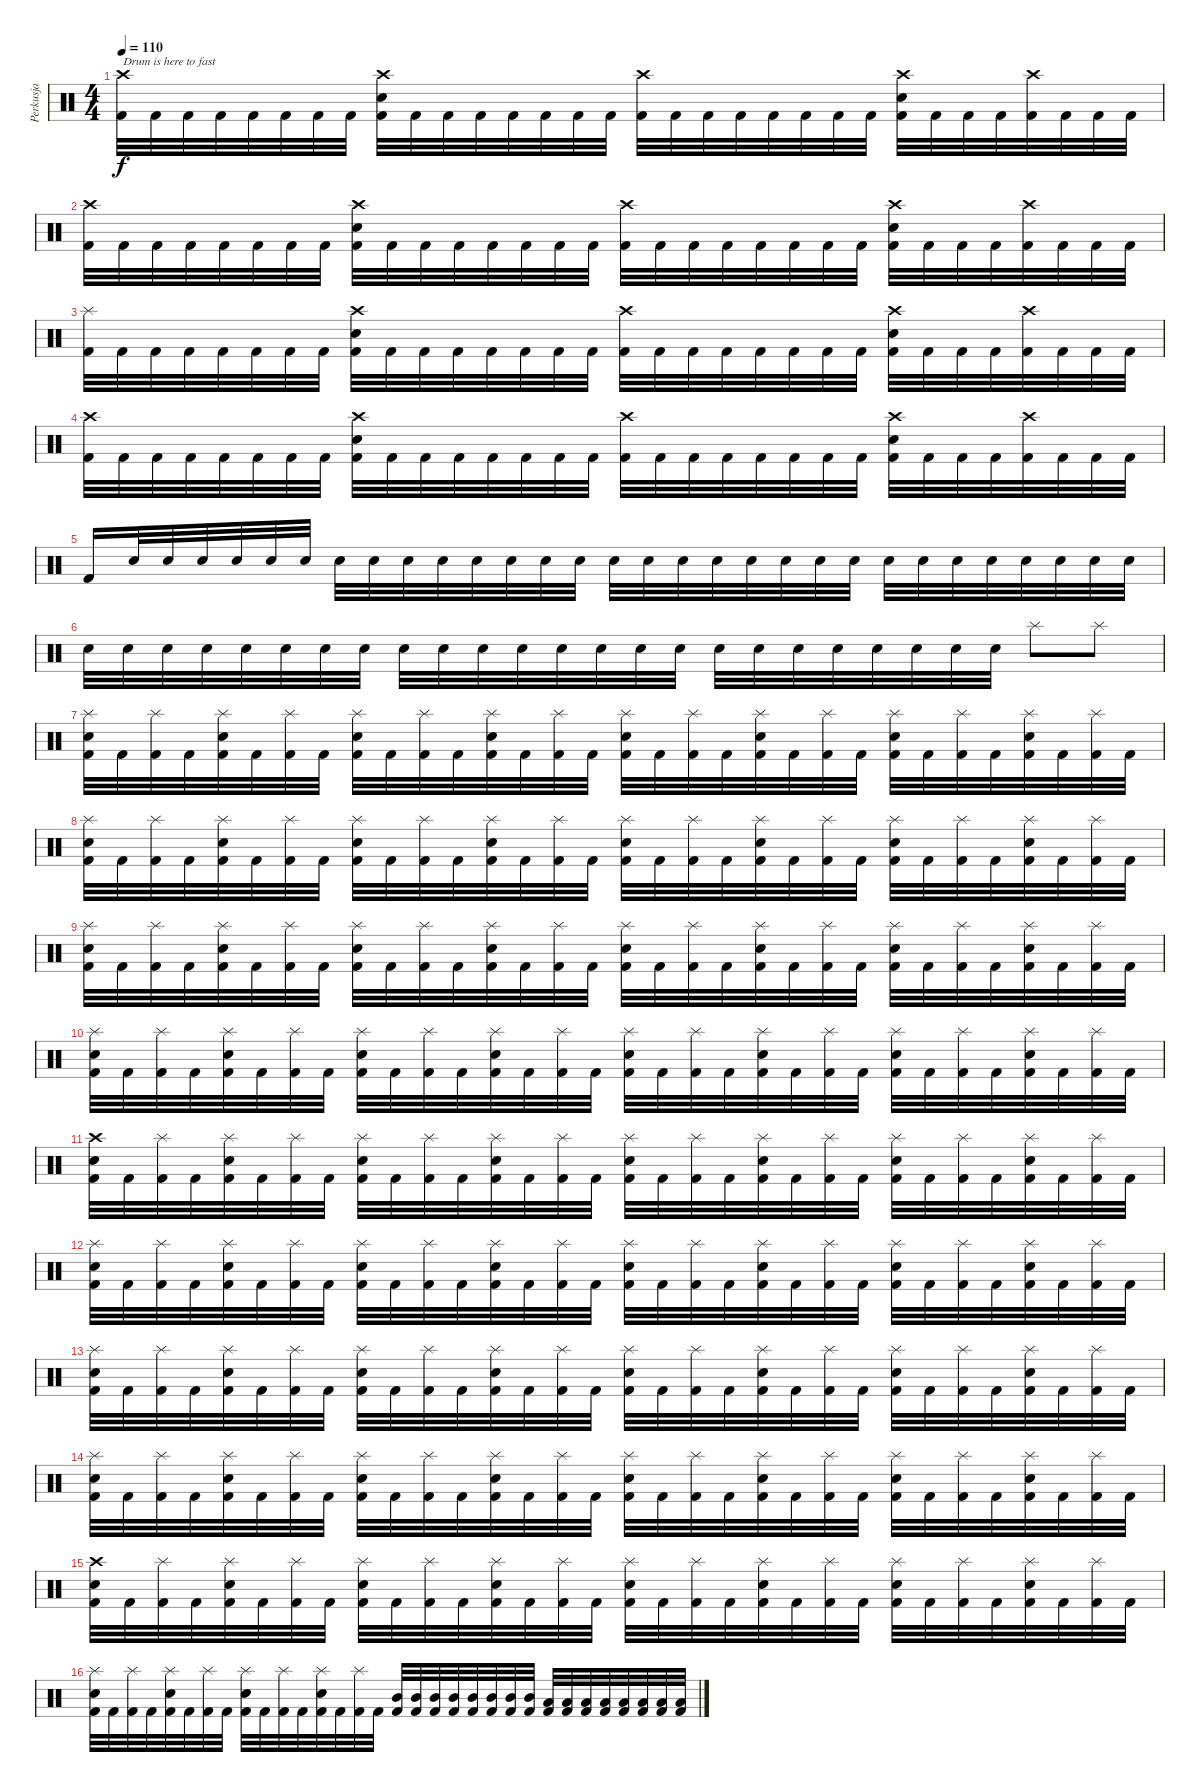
\track ("Perkusja" "Perkusja") {instrument percussion}
\staff {score}
\articulation defaults
\ts (4 4)
\tempo 110
\clef neutral
\ks c
("Crash high (hit)" "Kick (hit) 2").32{txt "Drum is here to fast" dy f} "Kick (hit) 2".32 "Kick (hit) 2".32 "Kick (hit) 2".32 "Kick (hit) 2".32 "Kick (hit) 2".32 "Kick (hit) 2".32 "Kick (hit) 2".32 ("Crash high (hit)" "Snare (hit) 2" "Kick (hit) 2").32 "Kick (hit) 2".32 "Kick (hit) 2".32 "Kick (hit) 2".32 "Kick (hit) 2".32 "Kick (hit) 2".32 "Kick (hit) 2".32 "Kick (hit) 2".32 ("Crash high (hit)" "Kick (hit) 2").32 "Kick (hit) 2".32 "Kick (hit) 2".32 "Kick (hit) 2".32 "Kick (hit) 2".32 "Kick (hit) 2".32 "Kick (hit) 2".32 "Kick (hit) 2".32 ("Crash high (hit)" "Snare (hit) 2" "Kick (hit) 2").32 "Kick (hit) 2".32 "Kick (hit) 2".32 "Kick (hit) 2".32 ("Crash high (hit)" "Kick (hit) 2").32 "Kick (hit) 2".32 "Kick (hit) 2".32 "Kick (hit) 2".32 |
("Crash high (hit)" "Kick (hit) 2").32 "Kick (hit) 2".32 "Kick (hit) 2".32 "Kick (hit) 2".32 "Kick (hit) 2".32 "Kick (hit) 2".32 "Kick (hit) 2".32 "Kick (hit) 2".32 ("Crash high (hit)" "Snare (hit) 2" "Kick (hit) 2").32 "Kick (hit) 2".32 "Kick (hit) 2".32 "Kick (hit) 2".32 "Kick (hit) 2".32 "Kick (hit) 2".32 "Kick (hit) 2".32 "Kick (hit) 2".32 ("Crash high (hit)" "Kick (hit) 2").32 "Kick (hit) 2".32 "Kick (hit) 2".32 "Kick (hit) 2".32 "Kick (hit) 2".32 "Kick (hit) 2".32 "Kick (hit) 2".32 "Kick (hit) 2".32 ("Crash high (hit)" "Snare (hit) 2" "Kick (hit) 2").32 "Kick (hit) 2".32 "Kick (hit) 2".32 "Kick (hit) 2".32 ("Crash high (hit)" "Kick (hit) 2").32 "Kick (hit) 2".32 "Kick (hit) 2".32 "Kick (hit) 2".32 |
("Splash (hit)" "Kick (hit) 2").32 "Kick (hit) 2".32 "Kick (hit) 2".32 "Kick (hit) 2".32 "Kick (hit) 2".32 "Kick (hit) 2".32 "Kick (hit) 2".32 "Kick (hit) 2".32 ("Crash high (hit)" "Snare (hit) 2" "Kick (hit) 2").32 "Kick (hit) 2".32 "Kick (hit) 2".32 "Kick (hit) 2".32 "Kick (hit) 2".32 "Kick (hit) 2".32 "Kick (hit) 2".32 "Kick (hit) 2".32 ("Crash high (hit)" "Kick (hit) 2").32 "Kick (hit) 2".32 "Kick (hit) 2".32 "Kick (hit) 2".32 "Kick (hit) 2".32 "Kick (hit) 2".32 "Kick (hit) 2".32 "Kick (hit) 2".32 ("Crash high (hit)" "Snare (hit) 2" "Kick (hit) 2").32 "Kick (hit) 2".32 "Kick (hit) 2".32 "Kick (hit) 2".32 ("Crash high (hit)" "Kick (hit) 2").32 "Kick (hit) 2".32 "Kick (hit) 2".32 "Kick (hit) 2".32 |
("Crash high (hit)" "Kick (hit) 2").32 "Kick (hit) 2".32 "Kick (hit) 2".32 "Kick (hit) 2".32 "Kick (hit) 2".32 "Kick (hit) 2".32 "Kick (hit) 2".32 "Kick (hit) 2".32 ("Crash high (hit)" "Snare (hit) 2" "Kick (hit) 2").32 "Kick (hit) 2".32 "Kick (hit) 2".32 "Kick (hit) 2".32 "Kick (hit) 2".32 "Kick (hit) 2".32 "Kick (hit) 2".32 "Kick (hit) 2".32 ("Crash high (hit)" "Kick (hit) 2").32 "Kick (hit) 2".32 "Kick (hit) 2".32 "Kick (hit) 2".32 "Kick (hit) 2".32 "Kick (hit) 2".32 "Kick (hit) 2".32 "Kick (hit) 2".32 ("Crash high (hit)" "Snare (hit) 2" "Kick (hit) 2").32 "Kick (hit) 2".32 "Kick (hit) 2".32 "Kick (hit) 2".32 ("Crash high (hit)" "Kick (hit) 2").32 "Kick (hit) 2".32 "Kick (hit) 2".32 "Kick (hit) 2".32 |
"Kick (hit) 2".16 "Snare (hit) 2".32{volume 10} "Snare (hit) 2".32 "Snare (hit) 2".32 "Snare (hit) 2".32 "Snare (hit) 2".32 "Snare (hit) 2".32 "Snare (hit) 2".32 "Snare (hit) 2".32 "Snare (hit) 2".32 "Snare (hit) 2".32 "Snare (hit) 2".32 "Snare (hit) 2".32 "Snare (hit) 2".32 "Snare (hit) 2".32 "Snare (hit) 2".32{volume 12} "Snare (hit) 2".32 "Snare (hit) 2".32 "Snare (hit) 2".32 "Snare (hit) 2".32 "Snare (hit) 2".32 "Snare (hit) 2".32 "Snare (hit) 2".32 "Snare (hit) 2".32 "Snare (hit) 2".32 "Snare (hit) 2".32 "Snare (hit) 2".32 "Snare (hit) 2".32 "Snare (hit) 2".32 "Snare (hit) 2".32 "Snare (hit) 2".32 |
"Snare (hit) 2".32{volume 14} "Snare (hit) 2".32 "Snare (hit) 2".32 "Snare (hit) 2".32 "Snare (hit) 2".32 "Snare (hit) 2".32 "Snare (hit) 2".32 "Snare (hit) 2".32 "Snare (hit) 2".32 "Snare (hit) 2".32 "Snare (hit) 2".32 "Snare (hit) 2".32 "Snare (hit) 2".32 "Snare (hit) 2".32 "Snare (hit) 2".32 "Snare (hit) 2".32 "Snare (hit) 2".32{volume 16} "Snare (hit) 2".32 "Snare (hit) 2".32 "Snare (hit) 2".32 "Snare (hit) 2".32 "Snare (hit) 2".32 "Snare (hit) 2".32 "Snare (hit) 2".32 "Splash (hit)".8 "Splash (hit)".8 |
("Splash (hit)" "Snare (hit) 2" "Kick (hit) 2").32 "Kick (hit) 2".32 ("Splash (hit)" "Kick (hit) 2").32 "Kick (hit) 2".32 ("Splash (hit)" "Snare (hit) 2" "Kick (hit) 2").32 "Kick (hit) 2".32 ("Splash (hit)" "Kick (hit) 2").32 "Kick (hit) 2".32 ("Splash (hit)" "Snare (hit) 2" "Kick (hit) 2").32 "Kick (hit) 2".32 ("Splash (hit)" "Kick (hit) 2").32 "Kick (hit) 2".32 ("Splash (hit)" "Snare (hit) 2" "Kick (hit) 2").32 "Kick (hit) 2".32 ("Splash (hit)" "Kick (hit) 2").32 "Kick (hit) 2".32 ("Splash (hit)" "Snare (hit) 2" "Kick (hit) 2").32 "Kick (hit) 2".32 ("Splash (hit)" "Kick (hit) 2").32 "Kick (hit) 2".32 ("Splash (hit)" "Snare (hit) 2" "Kick (hit) 2").32 "Kick (hit) 2".32 ("Splash (hit)" "Kick (hit) 2").32 "Kick (hit) 2".32 ("Splash (hit)" "Snare (hit) 2" "Kick (hit) 2").32 "Kick (hit) 2".32 ("Splash (hit)" "Kick (hit) 2").32 "Kick (hit) 2".32 ("Splash (hit)" "Snare (hit) 2" "Kick (hit) 2").32 "Kick (hit) 2".32 ("Splash (hit)" "Kick (hit) 2").32 "Kick (hit) 2".32 |
("Splash (hit)" "Snare (hit) 2" "Kick (hit) 2").32 "Kick (hit) 2".32 ("Splash (hit)" "Kick (hit) 2").32 "Kick (hit) 2".32 ("Splash (hit)" "Snare (hit) 2" "Kick (hit) 2").32 "Kick (hit) 2".32 ("Splash (hit)" "Kick (hit) 2").32 "Kick (hit) 2".32 ("Splash (hit)" "Snare (hit) 2" "Kick (hit) 2").32 "Kick (hit) 2".32 ("Splash (hit)" "Kick (hit) 2").32 "Kick (hit) 2".32 ("Splash (hit)" "Snare (hit) 2" "Kick (hit) 2").32 "Kick (hit) 2".32 ("Splash (hit)" "Kick (hit) 2").32 "Kick (hit) 2".32 ("Splash (hit)" "Snare (hit) 2" "Kick (hit) 2").32 "Kick (hit) 2".32 ("Splash (hit)" "Kick (hit) 2").32 "Kick (hit) 2".32 ("Splash (hit)" "Snare (hit) 2" "Kick (hit) 2").32 "Kick (hit) 2".32 ("Splash (hit)" "Kick (hit) 2").32 "Kick (hit) 2".32 ("Splash (hit)" "Snare (hit) 2" "Kick (hit) 2").32 "Kick (hit) 2".32 ("Splash (hit)" "Kick (hit) 2").32 "Kick (hit) 2".32 ("Splash (hit)" "Snare (hit) 2" "Kick (hit) 2").32 "Kick (hit) 2".32 ("Splash (hit)" "Kick (hit) 2").32 "Kick (hit) 2".32 |
("Splash (hit)" "Snare (hit) 2" "Kick (hit) 2").32 "Kick (hit) 2".32 ("Splash (hit)" "Kick (hit) 2").32 "Kick (hit) 2".32 ("Splash (hit)" "Snare (hit) 2" "Kick (hit) 2").32 "Kick (hit) 2".32 ("Splash (hit)" "Kick (hit) 2").32 "Kick (hit) 2".32 ("Splash (hit)" "Snare (hit) 2" "Kick (hit) 2").32 "Kick (hit) 2".32 ("Splash (hit)" "Kick (hit) 2").32 "Kick (hit) 2".32 ("Splash (hit)" "Snare (hit) 2" "Kick (hit) 2").32 "Kick (hit) 2".32 ("Splash (hit)" "Kick (hit) 2").32 "Kick (hit) 2".32 ("Splash (hit)" "Snare (hit) 2" "Kick (hit) 2").32 "Kick (hit) 2".32 ("Splash (hit)" "Kick (hit) 2").32 "Kick (hit) 2".32 ("Splash (hit)" "Snare (hit) 2" "Kick (hit) 2").32 "Kick (hit) 2".32 ("Splash (hit)" "Kick (hit) 2").32 "Kick (hit) 2".32 ("Splash (hit)" "Snare (hit) 2" "Kick (hit) 2").32 "Kick (hit) 2".32 ("Splash (hit)" "Kick (hit) 2").32 "Kick (hit) 2".32 ("Splash (hit)" "Snare (hit) 2" "Kick (hit) 2").32 "Kick (hit) 2".32 ("Splash (hit)" "Kick (hit) 2").32 "Kick (hit) 2".32 |
("Splash (hit)" "Snare (hit) 2" "Kick (hit) 2").32 "Kick (hit) 2".32 ("Splash (hit)" "Kick (hit) 2").32 "Kick (hit) 2".32 ("Splash (hit)" "Snare (hit) 2" "Kick (hit) 2").32 "Kick (hit) 2".32 ("Splash (hit)" "Kick (hit) 2").32 "Kick (hit) 2".32 ("Splash (hit)" "Snare (hit) 2" "Kick (hit) 2").32 "Kick (hit) 2".32 ("Splash (hit)" "Kick (hit) 2").32 "Kick (hit) 2".32 ("Splash (hit)" "Snare (hit) 2" "Kick (hit) 2").32 "Kick (hit) 2".32 ("Splash (hit)" "Kick (hit) 2").32 "Kick (hit) 2".32 ("Splash (hit)" "Snare (hit) 2" "Kick (hit) 2").32 "Kick (hit) 2".32 ("Splash (hit)" "Kick (hit) 2").32 "Kick (hit) 2".32 ("Splash (hit)" "Snare (hit) 2" "Kick (hit) 2").32 "Kick (hit) 2".32 ("Splash (hit)" "Kick (hit) 2").32 "Kick (hit) 2".32 ("Splash (hit)" "Snare (hit) 2" "Kick (hit) 2").32 "Kick (hit) 2".32 ("Splash (hit)" "Kick (hit) 2").32 "Kick (hit) 2".32 ("Splash (hit)" "Snare (hit) 2" "Kick (hit) 2").32 "Kick (hit) 2".32 ("Splash (hit)" "Kick (hit) 2").32 "Kick (hit) 2".32 |
("Crash high (hit)" "Snare (hit) 2" "Kick (hit) 2").32 "Kick (hit) 2".32 ("Splash (hit)" "Kick (hit) 2").32 "Kick (hit) 2".32 ("Splash (hit)" "Snare (hit) 2" "Kick (hit) 2").32 "Kick (hit) 2".32 ("Splash (hit)" "Kick (hit) 2").32 "Kick (hit) 2".32 ("Splash (hit)" "Snare (hit) 2" "Kick (hit) 2").32 "Kick (hit) 2".32 ("Splash (hit)" "Kick (hit) 2").32 "Kick (hit) 2".32 ("Splash (hit)" "Snare (hit) 2" "Kick (hit) 2").32 "Kick (hit) 2".32 ("Splash (hit)" "Kick (hit) 2").32 "Kick (hit) 2".32 ("Splash (hit)" "Snare (hit) 2" "Kick (hit) 2").32 "Kick (hit) 2".32 ("Splash (hit)" "Kick (hit) 2").32 "Kick (hit) 2".32 ("Splash (hit)" "Snare (hit) 2" "Kick (hit) 2").32 "Kick (hit) 2".32 ("Splash (hit)" "Kick (hit) 2").32 "Kick (hit) 2".32 ("Splash (hit)" "Snare (hit) 2" "Kick (hit) 2").32 "Kick (hit) 2".32 ("Splash (hit)" "Kick (hit) 2").32 "Kick (hit) 2".32 ("Splash (hit)" "Snare (hit) 2" "Kick (hit) 2").32 "Kick (hit) 2".32 ("Splash (hit)" "Kick (hit) 2").32 "Kick (hit) 2".32 |
("Splash (hit)" "Snare (hit) 2" "Kick (hit) 2").32 "Kick (hit) 2".32 ("Splash (hit)" "Kick (hit) 2").32 "Kick (hit) 2".32 ("Splash (hit)" "Snare (hit) 2" "Kick (hit) 2").32 "Kick (hit) 2".32 ("Splash (hit)" "Kick (hit) 2").32 "Kick (hit) 2".32 ("Splash (hit)" "Snare (hit) 2" "Kick (hit) 2").32 "Kick (hit) 2".32 ("Splash (hit)" "Kick (hit) 2").32 "Kick (hit) 2".32 ("Splash (hit)" "Snare (hit) 2" "Kick (hit) 2").32 "Kick (hit) 2".32 ("Splash (hit)" "Kick (hit) 2").32 "Kick (hit) 2".32 ("Splash (hit)" "Snare (hit) 2" "Kick (hit) 2").32 "Kick (hit) 2".32 ("Splash (hit)" "Kick (hit) 2").32 "Kick (hit) 2".32 ("Splash (hit)" "Snare (hit) 2" "Kick (hit) 2").32 "Kick (hit) 2".32 ("Splash (hit)" "Kick (hit) 2").32 "Kick (hit) 2".32 ("Splash (hit)" "Snare (hit) 2" "Kick (hit) 2").32 "Kick (hit) 2".32 ("Splash (hit)" "Kick (hit) 2").32 "Kick (hit) 2".32 ("Splash (hit)" "Snare (hit) 2" "Kick (hit) 2").32 "Kick (hit) 2".32 ("Splash (hit)" "Kick (hit) 2").32 "Kick (hit) 2".32 |
("Splash (hit)" "Snare (hit) 2" "Kick (hit) 2").32 "Kick (hit) 2".32 ("Splash (hit)" "Kick (hit) 2").32 "Kick (hit) 2".32 ("Splash (hit)" "Snare (hit) 2" "Kick (hit) 2").32 "Kick (hit) 2".32 ("Splash (hit)" "Kick (hit) 2").32 "Kick (hit) 2".32 ("Splash (hit)" "Snare (hit) 2" "Kick (hit) 2").32 "Kick (hit) 2".32 ("Splash (hit)" "Kick (hit) 2").32 "Kick (hit) 2".32 ("Splash (hit)" "Snare (hit) 2" "Kick (hit) 2").32 "Kick (hit) 2".32 ("Splash (hit)" "Kick (hit) 2").32 "Kick (hit) 2".32 ("Splash (hit)" "Snare (hit) 2" "Kick (hit) 2").32 "Kick (hit) 2".32 ("Splash (hit)" "Kick (hit) 2").32 "Kick (hit) 2".32 ("Splash (hit)" "Snare (hit) 2" "Kick (hit) 2").32 "Kick (hit) 2".32 ("Splash (hit)" "Kick (hit) 2").32 "Kick (hit) 2".32 ("Splash (hit)" "Snare (hit) 2" "Kick (hit) 2").32 "Kick (hit) 2".32 ("Splash (hit)" "Kick (hit) 2").32 "Kick (hit) 2".32 ("Splash (hit)" "Snare (hit) 2" "Kick (hit) 2").32 "Kick (hit) 2".32 ("Splash (hit)" "Kick (hit) 2").32 "Kick (hit) 2".32 |
("Splash (hit)" "Snare (hit) 2" "Kick (hit) 2").32 "Kick (hit) 2".32 ("Splash (hit)" "Kick (hit) 2").32 "Kick (hit) 2".32 ("Splash (hit)" "Snare (hit) 2" "Kick (hit) 2").32 "Kick (hit) 2".32 ("Splash (hit)" "Kick (hit) 2").32 "Kick (hit) 2".32 ("Splash (hit)" "Snare (hit) 2" "Kick (hit) 2").32 "Kick (hit) 2".32 ("Splash (hit)" "Kick (hit) 2").32 "Kick (hit) 2".32 ("Splash (hit)" "Snare (hit) 2" "Kick (hit) 2").32 "Kick (hit) 2".32 ("Splash (hit)" "Kick (hit) 2").32 "Kick (hit) 2".32 ("Splash (hit)" "Snare (hit) 2" "Kick (hit) 2").32 "Kick (hit) 2".32 ("Splash (hit)" "Kick (hit) 2").32 "Kick (hit) 2".32 ("Splash (hit)" "Snare (hit) 2" "Kick (hit) 2").32 "Kick (hit) 2".32 ("Splash (hit)" "Kick (hit) 2").32 "Kick (hit) 2".32 ("Splash (hit)" "Snare (hit) 2" "Kick (hit) 2").32 "Kick (hit) 2".32 ("Splash (hit)" "Kick (hit) 2").32 "Kick (hit) 2".32 ("Splash (hit)" "Snare (hit) 2" "Kick (hit) 2").32 "Kick (hit) 2".32 ("Splash (hit)" "Kick (hit) 2").32 "Kick (hit) 2".32 |
("Crash high (hit)" "Snare (hit) 2" "Kick (hit) 2").32 "Kick (hit) 2".32 ("Splash (hit)" "Kick (hit) 2").32 "Kick (hit) 2".32 ("Splash (hit)" "Snare (hit) 2" "Kick (hit) 2").32 "Kick (hit) 2".32 ("Splash (hit)" "Kick (hit) 2").32 "Kick (hit) 2".32 ("Splash (hit)" "Snare (hit) 2" "Kick (hit) 2").32 "Kick (hit) 2".32 ("Splash (hit)" "Kick (hit) 2").32 "Kick (hit) 2".32 ("Splash (hit)" "Snare (hit) 2" "Kick (hit) 2").32 "Kick (hit) 2".32 ("Splash (hit)" "Kick (hit) 2").32 "Kick (hit) 2".32 ("Splash (hit)" "Snare (hit) 2" "Kick (hit) 2").32 "Kick (hit) 2".32 ("Splash (hit)" "Kick (hit) 2").32 "Kick (hit) 2".32 ("Splash (hit)" "Snare (hit) 2" "Kick (hit) 2").32 "Kick (hit) 2".32 ("Splash (hit)" "Kick (hit) 2").32 "Kick (hit) 2".32 ("Splash (hit)" "Snare (hit) 2" "Kick (hit) 2").32 "Kick (hit) 2".32 ("Splash (hit)" "Kick (hit) 2").32 "Kick (hit) 2".32 ("Splash (hit)" "Snare (hit) 2" "Kick (hit) 2").32 "Kick (hit) 2".32 ("Splash (hit)" "Kick (hit) 2").32 "Kick (hit) 2".32 |
("Splash (hit)" "Snare (hit) 2" "Kick (hit) 2").32 "Kick (hit) 2".32 ("Splash (hit)" "Kick (hit) 2").32 "Kick (hit) 2".32 ("Splash (hit)" "Snare (hit) 2" "Kick (hit) 2").32 "Kick (hit) 2".32 ("Splash (hit)" "Kick (hit) 2").32 "Kick (hit) 2".32 ("Splash (hit)" "Snare (hit) 2" "Kick (hit) 2").32 "Kick (hit) 2".32 ("Splash (hit)" "Kick (hit) 2").32 "Kick (hit) 2".32 ("Splash (hit)" "Snare (hit) 2" "Kick (hit) 2").32 "Kick (hit) 2".32 ("Splash (hit)" "Kick (hit) 2").32 "Kick (hit) 2".32 ("Mid Tom (hit)" "Kick (hit) 2").32 ("Mid Tom (hit)" "Kick (hit) 2").32 ("Mid Tom (hit)" "Kick (hit) 2").32 ("Mid Tom (hit)" "Kick (hit) 2").32 ("Mid Tom (hit)" "Kick (hit) 2").32 ("Mid Tom (hit)" "Kick (hit) 2").32 ("Mid Tom (hit)" "Kick (hit) 2").32 ("Mid Tom (hit)" "Kick (hit) 2").32 ("Low Tom (hit)" "Kick (hit) 2").32 ("Low Tom (hit)" "Kick (hit) 2").32 ("Low Tom (hit)" "Kick (hit) 2").32 ("Low Tom (hit)" "Kick (hit) 2").32 ("Low Tom (hit)" "Kick (hit) 2").32 ("Low Tom (hit)" "Kick (hit) 2").32 ("Low Tom (hit)" "Kick (hit) 2").32 ("Low Tom (hit)" "Kick (hit) 2").32
